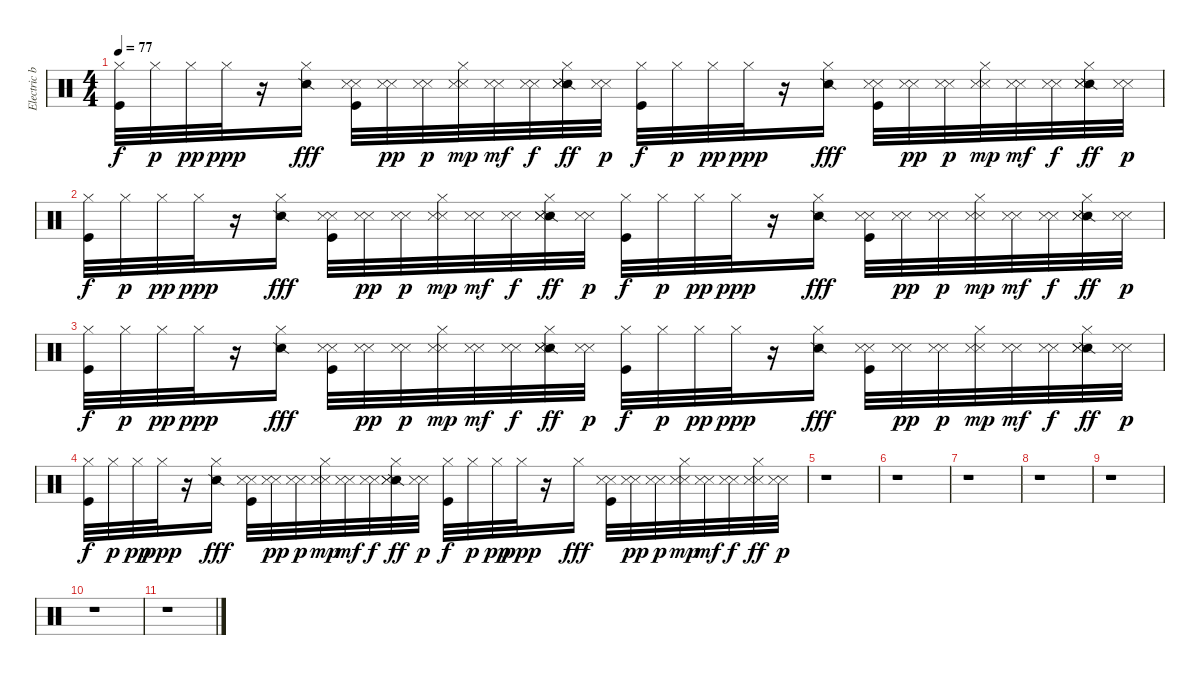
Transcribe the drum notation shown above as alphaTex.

\track ("Electric beat" "Electric b") {instrument percussion}
\staff {score}
\articulation defaults
\ts (4 4)
\tempo 77
\clef neutral
\ks c
("Hi-Hat (closed)" "Kick (hit)").32{dy f} "Hi-Hat (closed)".32{dy p} "Hi-Hat (closed)".32{dy pp} "Hi-Hat (closed)".32{dy ppp} r.16 ("Hi-Hat (closed)" "Snare (side stick) 2").16{dy fff} ("Snare (side stick) 3" "Metronome (hit)" "Kick (hit)").32 ("Snare (side stick) 3" "Metronome (hit)").32{dy pp} ("Snare (side stick) 3" "Metronome (hit)").32{dy p} ("Hi-Hat (closed)" "Snare (side stick) 3" "Metronome (hit)").32{dy mp} ("Snare (side stick) 3" "Metronome (hit)").32{dy mf} ("Snare (side stick) 3" "Metronome (hit)").32{dy f} ("Hi-Hat (closed)" "Snare (side stick) 2" "Snare (side stick) 3" "Metronome (hit)").32{dy ff} ("Snare (side stick) 3" "Metronome (hit)").32{dy p} ("Hi-Hat (closed)" "Kick (hit)").32{dy f} "Hi-Hat (closed)".32{dy p} "Hi-Hat (closed)".32{dy pp} "Hi-Hat (closed)".32{dy ppp} r.16 ("Hi-Hat (closed)" "Snare (side stick) 2").16{dy fff} ("Snare (side stick) 3" "Metronome (hit)" "Kick (hit)").32 ("Snare (side stick) 3" "Metronome (hit)").32{dy pp} ("Snare (side stick) 3" "Metronome (hit)").32{dy p} ("Hi-Hat (closed)" "Snare (side stick) 3" "Metronome (hit)").32{dy mp} ("Snare (side stick) 3" "Metronome (hit)").32{dy mf} ("Snare (side stick) 3" "Metronome (hit)").32{dy f} ("Hi-Hat (closed)" "Snare (side stick) 2" "Snare (side stick) 3" "Metronome (hit)").32{dy ff} ("Snare (side stick) 3" "Metronome (hit)").32{dy p} |
("Hi-Hat (closed)" "Kick (hit)").32{dy f} "Hi-Hat (closed)".32{dy p} "Hi-Hat (closed)".32{dy pp} "Hi-Hat (closed)".32{dy ppp} r.16 ("Hi-Hat (closed)" "Snare (side stick) 2").16{dy fff} ("Snare (side stick) 3" "Metronome (hit)" "Kick (hit)").32 ("Snare (side stick) 3" "Metronome (hit)").32{dy pp} ("Snare (side stick) 3" "Metronome (hit)").32{dy p} ("Hi-Hat (closed)" "Snare (side stick) 3" "Metronome (hit)").32{dy mp} ("Snare (side stick) 3" "Metronome (hit)").32{dy mf} ("Snare (side stick) 3" "Metronome (hit)").32{dy f} ("Hi-Hat (closed)" "Snare (side stick) 2" "Snare (side stick) 3" "Metronome (hit)").32{dy ff} ("Snare (side stick) 3" "Metronome (hit)").32{dy p} ("Hi-Hat (closed)" "Kick (hit)").32{dy f} "Hi-Hat (closed)".32{dy p} "Hi-Hat (closed)".32{dy pp} "Hi-Hat (closed)".32{dy ppp} r.16 ("Hi-Hat (closed)" "Snare (side stick) 2").16{dy fff} ("Snare (side stick) 3" "Metronome (hit)" "Kick (hit)").32 ("Snare (side stick) 3" "Metronome (hit)").32{dy pp} ("Snare (side stick) 3" "Metronome (hit)").32{dy p} ("Hi-Hat (closed)" "Snare (side stick) 3" "Metronome (hit)").32{dy mp} ("Snare (side stick) 3" "Metronome (hit)").32{dy mf} ("Snare (side stick) 3" "Metronome (hit)").32{dy f} ("Hi-Hat (closed)" "Snare (side stick) 2" "Snare (side stick) 3" "Metronome (hit)").32{dy ff} ("Snare (side stick) 3" "Metronome (hit)").32{dy p} |
("Hi-Hat (closed)" "Kick (hit)").32{dy f} "Hi-Hat (closed)".32{dy p} "Hi-Hat (closed)".32{dy pp} "Hi-Hat (closed)".32{dy ppp} r.16 ("Hi-Hat (closed)" "Snare (side stick) 2").16{dy fff} ("Snare (side stick) 3" "Metronome (hit)" "Kick (hit)").32 ("Snare (side stick) 3" "Metronome (hit)").32{dy pp} ("Snare (side stick) 3" "Metronome (hit)").32{dy p} ("Hi-Hat (closed)" "Snare (side stick) 3" "Metronome (hit)").32{dy mp} ("Snare (side stick) 3" "Metronome (hit)").32{dy mf} ("Snare (side stick) 3" "Metronome (hit)").32{dy f} ("Hi-Hat (closed)" "Snare (side stick) 2" "Snare (side stick) 3" "Metronome (hit)").32{dy ff} ("Snare (side stick) 3" "Metronome (hit)").32{dy p} ("Hi-Hat (closed)" "Kick (hit)").32{dy f} "Hi-Hat (closed)".32{dy p} "Hi-Hat (closed)".32{dy pp} "Hi-Hat (closed)".32{dy ppp} r.16 ("Hi-Hat (closed)" "Snare (side stick) 2").16{dy fff} ("Snare (side stick) 3" "Metronome (hit)" "Kick (hit)").32 ("Snare (side stick) 3" "Metronome (hit)").32{dy pp} ("Snare (side stick) 3" "Metronome (hit)").32{dy p} ("Hi-Hat (closed)" "Snare (side stick) 3" "Metronome (hit)").32{dy mp} ("Snare (side stick) 3" "Metronome (hit)").32{dy mf} ("Snare (side stick) 3" "Metronome (hit)").32{dy f} ("Hi-Hat (closed)" "Snare (side stick) 2" "Snare (side stick) 3" "Metronome (hit)").32{dy ff} ("Snare (side stick) 3" "Metronome (hit)").32{dy p} |
("Hi-Hat (closed)" "Kick (hit)").32{dy f} "Hi-Hat (closed)".32{dy p} "Hi-Hat (closed)".32{dy pp} "Hi-Hat (closed)".32{dy ppp} r.16 ("Hi-Hat (closed)" "Snare (side stick) 2").16{dy fff} ("Snare (side stick) 3" "Metronome (hit)" "Kick (hit)").32 ("Snare (side stick) 3" "Metronome (hit)").32{dy pp} ("Snare (side stick) 3" "Metronome (hit)").32{dy p} ("Hi-Hat (closed)" "Snare (side stick) 3" "Metronome (hit)").32{dy mp} ("Snare (side stick) 3" "Metronome (hit)").32{dy mf} ("Snare (side stick) 3" "Metronome (hit)").32{dy f} ("Hi-Hat (closed)" "Snare (side stick) 2" "Snare (side stick) 3" "Metronome (hit)").32{dy ff} ("Snare (side stick) 3" "Metronome (hit)").32{dy p} ("Hi-Hat (closed)" "Kick (hit)").32{dy f} "Hi-Hat (closed)".32{dy p} "Hi-Hat (closed)".32{dy pp} "Hi-Hat (closed)".32{dy ppp} r.16 "Hi-Hat (closed)".16{dy fff} ("Snare (side stick) 3" "Metronome (hit)" "Kick (hit)").32 ("Snare (side stick) 3" "Metronome (hit)").32{dy pp} ("Snare (side stick) 3" "Metronome (hit)").32{dy p} ("Hi-Hat (closed)" "Snare (side stick) 3" "Metronome (hit)").32{dy mp} ("Snare (side stick) 3" "Metronome (hit)").32{dy mf} ("Snare (side stick) 3" "Metronome (hit)").32{dy f} ("Hi-Hat (closed)" "Snare (side stick) 3" "Metronome (hit)").32{dy ff} ("Snare (side stick) 3" "Metronome (hit)").32{dy p} |
r.1 |
r.1 |
r.1 |
r.1 |
r.1 |
r.1 |
r.1
